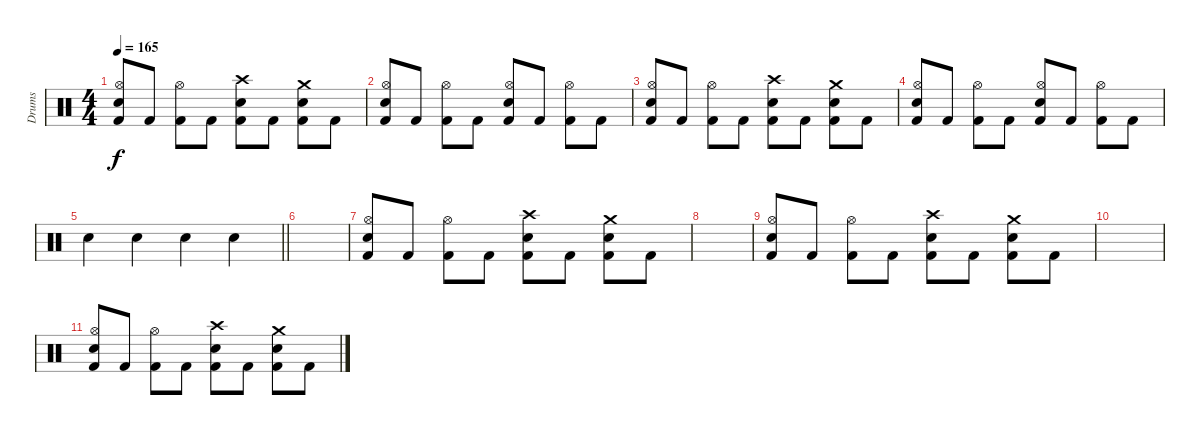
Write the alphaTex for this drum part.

\track ("Drums" "Drums") {instrument percussion}
\staff {score}
\articulation defaults
\ts (4 4)
\tempo 165
\clef neutral
\ks c
("Electric Snare (hit)" "Hi-Hat (open)" "Kick (hit) 2").8{dy f} "Kick (hit) 2".8 ("Hi-Hat (open)" "Kick (hit) 2").8 "Kick (hit) 2".8 ("Electric Snare (hit)" "Crash high (hit)" "Kick (hit) 2").8 "Kick (hit) 2".8 ("Electric Snare (hit)" "Crash medium (hit)" "Kick (hit) 2").8 "Kick (hit) 2".8 |
("Electric Snare (hit)" "Hi-Hat (open)" "Kick (hit) 2").8 "Kick (hit) 2".8 ("Hi-Hat (open)" "Kick (hit) 2").8 "Kick (hit) 2".8 ("Electric Snare (hit)" "Hi-Hat (open)" "Kick (hit) 2").8 "Kick (hit) 2".8 ("Hi-Hat (open)" "Kick (hit) 2").8 "Kick (hit) 2".8 |
("Electric Snare (hit)" "Hi-Hat (open)" "Kick (hit) 2").8 "Kick (hit) 2".8 ("Hi-Hat (open)" "Kick (hit) 2").8 "Kick (hit) 2".8 ("Electric Snare (hit)" "Crash high (hit)" "Kick (hit) 2").8 "Kick (hit) 2".8 ("Electric Snare (hit)" "Crash medium (hit)" "Kick (hit) 2").8 "Kick (hit) 2".8 |
("Electric Snare (hit)" "Hi-Hat (open)" "Kick (hit) 2").8 "Kick (hit) 2".8 ("Hi-Hat (open)" "Kick (hit) 2").8 "Kick (hit) 2".8 ("Electric Snare (hit)" "Hi-Hat (open)" "Kick (hit) 2").8 "Kick (hit) 2".8 ("Hi-Hat (open)" "Kick (hit) 2").8 "Kick (hit) 2".8 |
\barLineRight lightlight "Snare (hit)".4 "Snare (hit)".4 "Snare (hit)".4 "Snare (hit)".4
|
|
("Electric Snare (hit)" "Hi-Hat (open)" "Kick (hit) 2").8 "Kick (hit) 2".8 ("Hi-Hat (open)" "Kick (hit) 2").8 "Kick (hit) 2".8 ("Electric Snare (hit)" "Crash high (hit)" "Kick (hit) 2").8 "Kick (hit) 2".8 ("Electric Snare (hit)" "Crash medium (hit)" "Kick (hit) 2").8 "Kick (hit) 2".8 |
|
("Electric Snare (hit)" "Hi-Hat (open)" "Kick (hit) 2").8 "Kick (hit) 2".8 ("Hi-Hat (open)" "Kick (hit) 2").8 "Kick (hit) 2".8 ("Electric Snare (hit)" "Crash high (hit)" "Kick (hit) 2").8 "Kick (hit) 2".8 ("Electric Snare (hit)" "Crash medium (hit)" "Kick (hit) 2").8 "Kick (hit) 2".8 |
|
("Electric Snare (hit)" "Hi-Hat (open)" "Kick (hit) 2").8 "Kick (hit) 2".8 ("Hi-Hat (open)" "Kick (hit) 2").8 "Kick (hit) 2".8 ("Electric Snare (hit)" "Crash high (hit)" "Kick (hit) 2").8 "Kick (hit) 2".8 ("Electric Snare (hit)" "Crash medium (hit)" "Kick (hit) 2").8 "Kick (hit) 2".8
